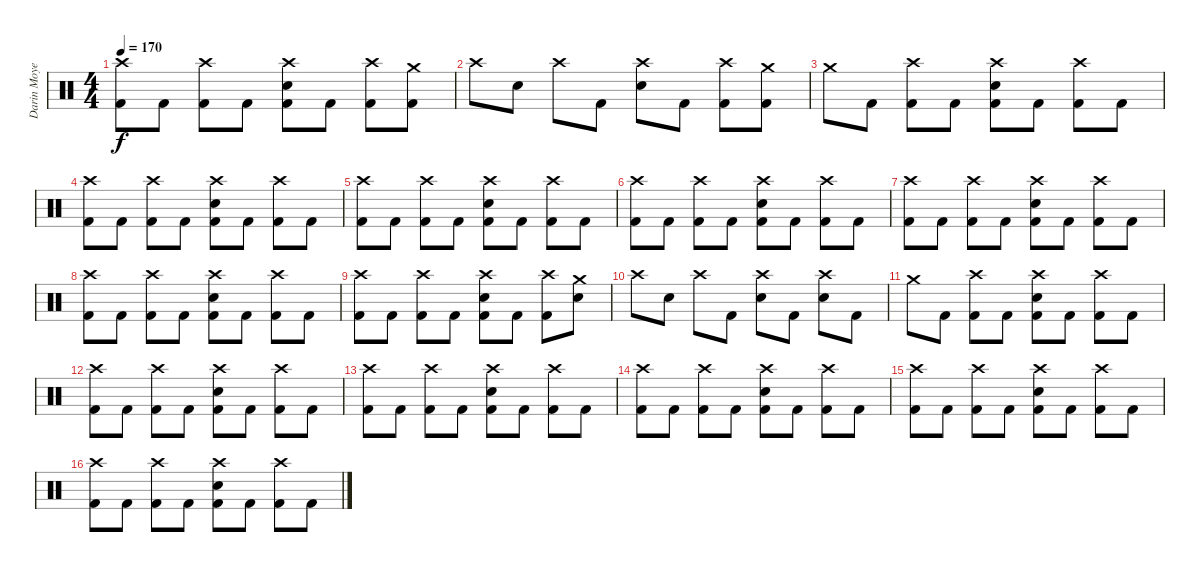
\track ("Darin Moyen" "Darin Moye") {instrument percussion}
\staff {score}
\articulation defaults
\ts (4 4)
\tempo 170
\clef neutral
\ks c
("Crash high (hit)" "Kick (hit) 2").8{dy f} "Kick (hit) 2".8 ("Crash high (hit)" "Kick (hit) 2").8 "Kick (hit) 2".8 ("Crash high (hit)" "Electric Snare (hit)" "Kick (hit) 2").8 "Kick (hit) 2".8 ("Crash high (hit)" "Kick (hit) 2").8 ("Crash medium (hit)" "Kick (hit) 2").8 |
"Crash high (hit)".8 "Electric Snare (hit)".8 "Crash high (hit)".8 "Kick (hit) 2".8 ("Crash high (hit)" "Electric Snare (hit)").8 "Kick (hit) 2".8 ("Crash high (hit)" "Kick (hit) 2").8 ("Crash medium (hit)" "Kick (hit) 2").8 |
"Crash medium (hit)".8 "Kick (hit) 2".8 ("Crash high (hit)" "Kick (hit) 2").8 "Kick (hit) 2".8 ("Crash high (hit)" "Electric Snare (hit)" "Kick (hit) 2").8 "Kick (hit) 2".8 ("Crash high (hit)" "Kick (hit) 2").8 "Kick (hit) 2".8 |
("Crash high (hit)" "Kick (hit) 2").8 "Kick (hit) 2".8 ("Crash high (hit)" "Kick (hit) 2").8 "Kick (hit) 2".8 ("Crash high (hit)" "Electric Snare (hit)" "Kick (hit) 2").8 "Kick (hit) 2".8 ("Crash high (hit)" "Kick (hit) 2").8 "Kick (hit) 2".8 |
("Crash high (hit)" "Kick (hit) 2").8 "Kick (hit) 2".8 ("Crash high (hit)" "Kick (hit) 2").8 "Kick (hit) 2".8 ("Crash high (hit)" "Electric Snare (hit)" "Kick (hit) 2").8 "Kick (hit) 2".8 ("Crash high (hit)" "Kick (hit) 2").8 "Kick (hit) 2".8 |
("Crash high (hit)" "Kick (hit) 2").8 "Kick (hit) 2".8 ("Crash high (hit)" "Kick (hit) 2").8 "Kick (hit) 2".8 ("Crash high (hit)" "Electric Snare (hit)" "Kick (hit) 2").8 "Kick (hit) 2".8 ("Crash high (hit)" "Kick (hit) 2").8 "Kick (hit) 2".8 |
("Crash high (hit)" "Kick (hit) 2").8 "Kick (hit) 2".8 ("Crash high (hit)" "Kick (hit) 2").8 "Kick (hit) 2".8 ("Crash high (hit)" "Electric Snare (hit)" "Kick (hit) 2").8 "Kick (hit) 2".8 ("Crash high (hit)" "Kick (hit) 2").8 "Kick (hit) 2".8 |
("Crash high (hit)" "Kick (hit) 2").8 "Kick (hit) 2".8 ("Crash high (hit)" "Kick (hit) 2").8 "Kick (hit) 2".8 ("Crash high (hit)" "Electric Snare (hit)" "Kick (hit) 2").8 "Kick (hit) 2".8 ("Crash high (hit)" "Kick (hit) 2").8 "Kick (hit) 2".8 |
("Crash high (hit)" "Kick (hit) 2").8 "Kick (hit) 2".8 ("Crash high (hit)" "Kick (hit) 2").8 "Kick (hit) 2".8 ("Crash high (hit)" "Electric Snare (hit)" "Kick (hit) 2").8 "Kick (hit) 2".8 ("Crash high (hit)" "Kick (hit) 2").8 ("Crash medium (hit)" "Electric Snare (hit)").8 |
"Crash high (hit)".8 "Electric Snare (hit)".8 "Crash high (hit)".8 "Kick (hit) 2".8 ("Crash high (hit)" "Electric Snare (hit)").8 "Kick (hit) 2".8 ("Crash high (hit)" "Electric Snare (hit)").8 "Kick (hit) 2".8 |
"Crash medium (hit)".8 "Kick (hit) 2".8 ("Crash high (hit)" "Kick (hit) 2").8 "Kick (hit) 2".8 ("Crash high (hit)" "Electric Snare (hit)" "Kick (hit) 2").8 "Kick (hit) 2".8 ("Crash high (hit)" "Kick (hit) 2").8 "Kick (hit) 2".8 |
("Crash high (hit)" "Kick (hit) 2").8 "Kick (hit) 2".8 ("Crash high (hit)" "Kick (hit) 2").8 "Kick (hit) 2".8 ("Crash high (hit)" "Electric Snare (hit)" "Kick (hit) 2").8 "Kick (hit) 2".8 ("Crash high (hit)" "Kick (hit) 2").8 "Kick (hit) 2".8 |
("Crash high (hit)" "Kick (hit) 2").8 "Kick (hit) 2".8 ("Crash high (hit)" "Kick (hit) 2").8 "Kick (hit) 2".8 ("Crash high (hit)" "Electric Snare (hit)" "Kick (hit) 2").8 "Kick (hit) 2".8 ("Crash high (hit)" "Kick (hit) 2").8 "Kick (hit) 2".8 |
("Crash high (hit)" "Kick (hit) 2").8 "Kick (hit) 2".8 ("Crash high (hit)" "Kick (hit) 2").8 "Kick (hit) 2".8 ("Crash high (hit)" "Electric Snare (hit)" "Kick (hit) 2").8 "Kick (hit) 2".8 ("Crash high (hit)" "Kick (hit) 2").8 "Kick (hit) 2".8 |
("Crash high (hit)" "Kick (hit) 2").8 "Kick (hit) 2".8 ("Crash high (hit)" "Kick (hit) 2").8 "Kick (hit) 2".8 ("Crash high (hit)" "Electric Snare (hit)" "Kick (hit) 2").8 "Kick (hit) 2".8 ("Crash high (hit)" "Kick (hit) 2").8 "Kick (hit) 2".8 |
("Crash high (hit)" "Kick (hit) 2").8 "Kick (hit) 2".8 ("Crash high (hit)" "Kick (hit) 2").8 "Kick (hit) 2".8 ("Crash high (hit)" "Electric Snare (hit)" "Kick (hit) 2").8 "Kick (hit) 2".8 ("Crash high (hit)" "Kick (hit) 2").8 "Kick (hit) 2".8
